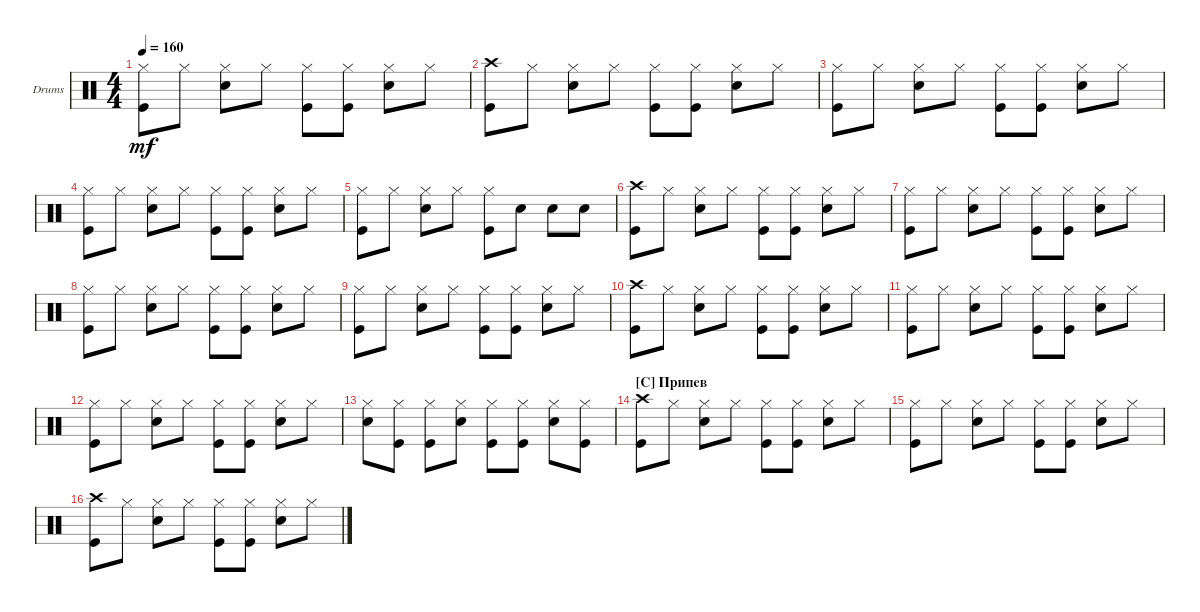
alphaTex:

\bracketExtendMode groupsimilarinstruments
\firstSystemTrackNameOrientation horizontal
\otherSystemsTrackNameOrientation horizontal
\track ("Drumkit" "Drums") {instrument percussion}
\staff {score}
\articulation defaults
\ts (4 4)
\tempo 160
\clef neutral
\ks c
("Kick (hit)" "Hi-Hat (closed)").8{dy mf} "Hi-Hat (closed)".8 ("Hi-Hat (closed)" "Snare (hit) 2").8 "Hi-Hat (closed)".8 ("Kick (hit)" "Hi-Hat (closed)").8 ("Hi-Hat (closed)" "Kick (hit)").8 ("Hi-Hat (closed)" "Snare (hit) 2").8 "Hi-Hat (closed)".8 |
("Kick (hit)" "Crash high (hit)").8 "Hi-Hat (closed)".8 ("Hi-Hat (closed)" "Snare (hit) 2").8 "Hi-Hat (closed)".8 ("Kick (hit)" "Hi-Hat (closed)").8 ("Hi-Hat (closed)" "Kick (hit)").8 ("Hi-Hat (closed)" "Snare (hit) 2").8 "Hi-Hat (closed)".8 |
("Kick (hit)" "Hi-Hat (closed)").8 "Hi-Hat (closed)".8 ("Hi-Hat (closed)" "Snare (hit) 2").8 "Hi-Hat (closed)".8 ("Kick (hit)" "Hi-Hat (closed)").8 ("Hi-Hat (closed)" "Kick (hit)").8 ("Hi-Hat (closed)" "Snare (hit) 2").8 "Hi-Hat (closed)".8 |
("Kick (hit)" "Hi-Hat (closed)").8 "Hi-Hat (closed)".8 ("Hi-Hat (closed)" "Snare (hit) 2").8 "Hi-Hat (closed)".8 ("Kick (hit)" "Hi-Hat (closed)").8 ("Hi-Hat (closed)" "Kick (hit)").8 ("Hi-Hat (closed)" "Snare (hit) 2").8 "Hi-Hat (closed)".8 |
("Kick (hit)" "Hi-Hat (closed)").8 "Hi-Hat (closed)".8 ("Hi-Hat (closed)" "Snare (hit) 2").8 "Hi-Hat (closed)".8 ("Kick (hit)" "Hi-Hat (closed)").8 "Snare (hit) 2".8 "Snare (hit) 2".8 "Snare (hit) 2".8 |
("Kick (hit)" "Crash high (hit)").8 "Hi-Hat (closed)".8 ("Hi-Hat (closed)" "Snare (hit) 2").8 "Hi-Hat (closed)".8 ("Kick (hit)" "Hi-Hat (closed)").8 ("Hi-Hat (closed)" "Kick (hit)").8 ("Hi-Hat (closed)" "Snare (hit) 2").8 "Hi-Hat (closed)".8 |
("Kick (hit)" "Hi-Hat (closed)").8 "Hi-Hat (closed)".8 ("Hi-Hat (closed)" "Snare (hit) 2").8 "Hi-Hat (closed)".8 ("Kick (hit)" "Hi-Hat (closed)").8 ("Hi-Hat (closed)" "Kick (hit)").8 ("Hi-Hat (closed)" "Snare (hit) 2").8 "Hi-Hat (closed)".8 |
("Kick (hit)" "Hi-Hat (closed)").8 "Hi-Hat (closed)".8 ("Hi-Hat (closed)" "Snare (hit) 2").8 "Hi-Hat (closed)".8 ("Kick (hit)" "Hi-Hat (closed)").8 ("Hi-Hat (closed)" "Kick (hit)").8 ("Hi-Hat (closed)" "Snare (hit) 2").8 "Hi-Hat (closed)".8 |
("Kick (hit)" "Hi-Hat (closed)").8 "Hi-Hat (closed)".8 ("Hi-Hat (closed)" "Snare (hit) 2").8 "Hi-Hat (closed)".8 ("Kick (hit)" "Hi-Hat (closed)").8 ("Hi-Hat (closed)" "Kick (hit)").8 ("Hi-Hat (closed)" "Snare (hit) 2").8 "Hi-Hat (closed)".8 |
("Kick (hit)" "Crash high (hit)").8 "Hi-Hat (closed)".8 ("Hi-Hat (closed)" "Snare (hit) 2").8 "Hi-Hat (closed)".8 ("Kick (hit)" "Hi-Hat (closed)").8 ("Hi-Hat (closed)" "Kick (hit)").8 ("Hi-Hat (closed)" "Snare (hit) 2").8 "Hi-Hat (closed)".8 |
("Kick (hit)" "Hi-Hat (closed)").8 "Hi-Hat (closed)".8 ("Hi-Hat (closed)" "Snare (hit) 2").8 "Hi-Hat (closed)".8 ("Kick (hit)" "Hi-Hat (closed)").8 ("Hi-Hat (closed)" "Kick (hit)").8 ("Hi-Hat (closed)" "Snare (hit) 2").8 "Hi-Hat (closed)".8 |
("Kick (hit)" "Hi-Hat (closed)").8 "Hi-Hat (closed)".8 ("Hi-Hat (closed)" "Snare (hit) 2").8 "Hi-Hat (closed)".8 ("Kick (hit)" "Hi-Hat (closed)").8 ("Hi-Hat (closed)" "Kick (hit)").8 ("Hi-Hat (closed)" "Snare (hit) 2").8 "Hi-Hat (closed)".8 |
("Hi-Hat (closed)" "Snare (hit) 2").8 ("Hi-Hat (closed)" "Kick (hit)").8 ("Hi-Hat (closed)" "Kick (hit)").8 ("Hi-Hat (closed)" "Snare (hit) 2").8 ("Kick (hit)" "Hi-Hat (closed)").8 ("Hi-Hat (closed)" "Kick (hit)").8 ("Hi-Hat (closed)" "Snare (hit) 2").8 ("Hi-Hat (closed)" "Kick (hit)").8 |
\section ("C" "Припев")
("Kick (hit)" "Crash high (hit)").8 "Hi-Hat (closed)".8 ("Hi-Hat (closed)" "Snare (hit) 2").8 "Hi-Hat (closed)".8 ("Kick (hit)" "Hi-Hat (closed)").8 ("Hi-Hat (closed)" "Kick (hit)").8 ("Hi-Hat (closed)" "Snare (hit) 2").8 "Hi-Hat (closed)".8 |
("Kick (hit)" "Hi-Hat (closed)").8 "Hi-Hat (closed)".8 ("Hi-Hat (closed)" "Snare (hit) 2").8 "Hi-Hat (closed)".8 ("Kick (hit)" "Hi-Hat (closed)").8 ("Hi-Hat (closed)" "Kick (hit)").8 ("Hi-Hat (closed)" "Snare (hit) 2").8 "Hi-Hat (closed)".8 |
("Kick (hit)" "Crash high (hit)").8 "Hi-Hat (closed)".8 ("Hi-Hat (closed)" "Snare (hit) 2").8 "Hi-Hat (closed)".8 ("Kick (hit)" "Hi-Hat (closed)").8 ("Hi-Hat (closed)" "Kick (hit)").8 ("Hi-Hat (closed)" "Snare (hit) 2").8 "Hi-Hat (closed)".8
